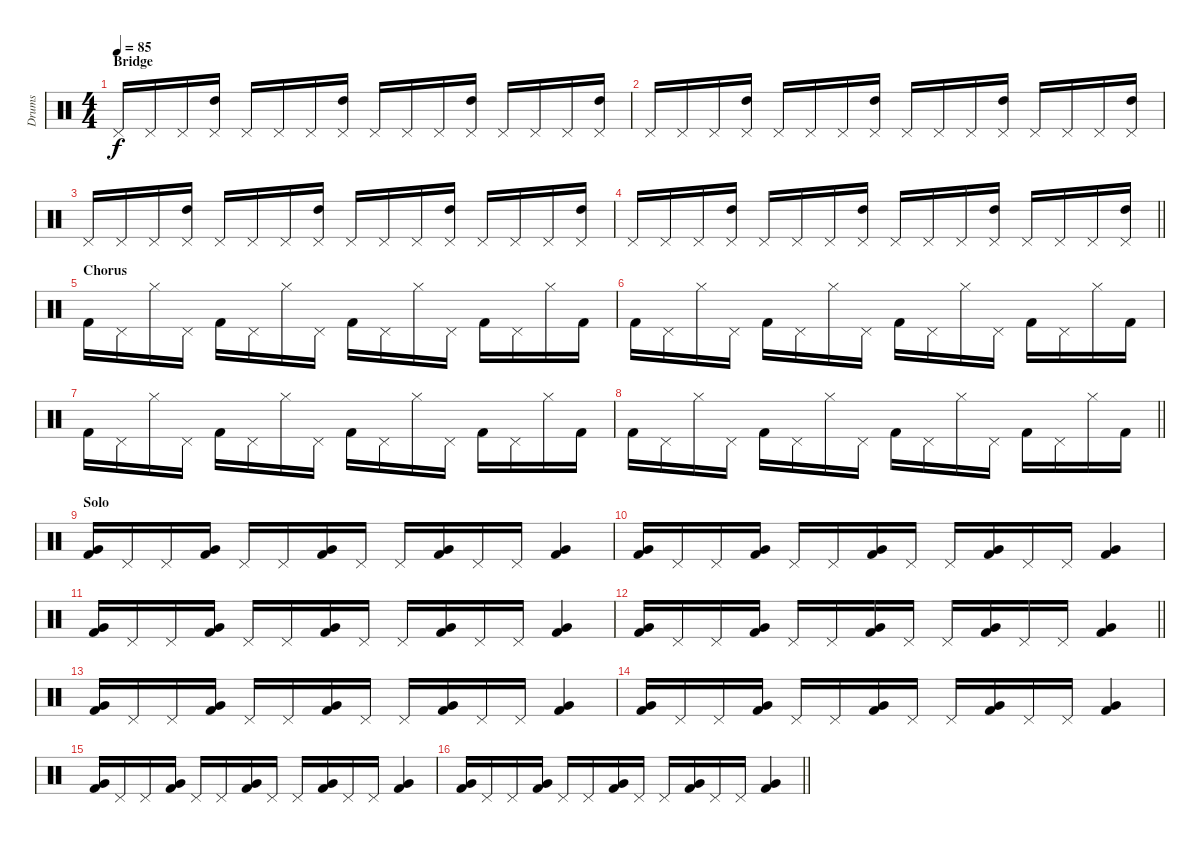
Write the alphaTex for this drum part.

\track ("Drums" "Drums") {instrument percussion}
\staff {score}
\articulation defaults
\ts (4 4)
\section ("" "Bridge")
\tempo 85
\clef neutral
\ks c "Pedal Hi-Hat (hit)".16{dy f} "Pedal Hi-Hat (hit)".16 "Pedal Hi-Hat (hit)".16
("High Tom (hit)" "Pedal Hi-Hat (hit)").16 "Pedal Hi-Hat (hit)".16 "Pedal Hi-Hat (hit)".16 "Pedal Hi-Hat (hit)".16 ("High Tom (hit)" "Pedal Hi-Hat (hit)").16 "Pedal Hi-Hat (hit)".16 "Pedal Hi-Hat (hit)".16 "Pedal Hi-Hat (hit)".16 ("High Tom (hit)" "Pedal Hi-Hat (hit)").16 "Pedal Hi-Hat (hit)".16 "Pedal Hi-Hat (hit)".16 "Pedal Hi-Hat (hit)".16 ("High Tom (hit)" "Pedal Hi-Hat (hit)").16 |
"Pedal Hi-Hat (hit)".16 "Pedal Hi-Hat (hit)".16 "Pedal Hi-Hat (hit)".16 ("High Tom (hit)" "Pedal Hi-Hat (hit)").16 "Pedal Hi-Hat (hit)".16 "Pedal Hi-Hat (hit)".16 "Pedal Hi-Hat (hit)".16 ("High Tom (hit)" "Pedal Hi-Hat (hit)").16 "Pedal Hi-Hat (hit)".16 "Pedal Hi-Hat (hit)".16 "Pedal Hi-Hat (hit)".16 ("High Tom (hit)" "Pedal Hi-Hat (hit)").16 "Pedal Hi-Hat (hit)".16 "Pedal Hi-Hat (hit)".16 "Pedal Hi-Hat (hit)".16 ("High Tom (hit)" "Pedal Hi-Hat (hit)").16 |
"Pedal Hi-Hat (hit)".16 "Pedal Hi-Hat (hit)".16 "Pedal Hi-Hat (hit)".16 ("High Tom (hit)" "Pedal Hi-Hat (hit)").16 "Pedal Hi-Hat (hit)".16 "Pedal Hi-Hat (hit)".16 "Pedal Hi-Hat (hit)".16 ("High Tom (hit)" "Pedal Hi-Hat (hit)").16 "Pedal Hi-Hat (hit)".16 "Pedal Hi-Hat (hit)".16 "Pedal Hi-Hat (hit)".16 ("High Tom (hit)" "Pedal Hi-Hat (hit)").16 "Pedal Hi-Hat (hit)".16 "Pedal Hi-Hat (hit)".16 "Pedal Hi-Hat (hit)".16 ("High Tom (hit)" "Pedal Hi-Hat (hit)").16 |
\barLineRight lightlight "Pedal Hi-Hat (hit)".16 "Pedal Hi-Hat (hit)".16 "Pedal Hi-Hat (hit)".16
("High Tom (hit)" "Pedal Hi-Hat (hit)").16 "Pedal Hi-Hat (hit)".16 "Pedal Hi-Hat (hit)".16 "Pedal Hi-Hat (hit)".16 ("High Tom (hit)" "Pedal Hi-Hat (hit)").16 "Pedal Hi-Hat (hit)".16 "Pedal Hi-Hat (hit)".16 "Pedal Hi-Hat (hit)".16 ("High Tom (hit)" "Pedal Hi-Hat (hit)").16 "Pedal Hi-Hat (hit)".16 "Pedal Hi-Hat (hit)".16 "Pedal Hi-Hat (hit)".16 ("High Tom (hit)" "Pedal Hi-Hat (hit)").16 |
\section ("" "Chorus")
"Kick (hit) 2".16 "Pedal Hi-Hat (hit)".16 "Hi-Hat (closed)".16 "Pedal Hi-Hat (hit)".16 "Kick (hit) 2".16 "Pedal Hi-Hat (hit)".16 "Hi-Hat (closed)".16 "Pedal Hi-Hat (hit)".16 "Kick (hit) 2".16 "Pedal Hi-Hat (hit)".16 "Hi-Hat (closed)".16 "Pedal Hi-Hat (hit)".16 "Kick (hit) 2".16 "Pedal Hi-Hat (hit)".16 "Hi-Hat (closed)".16 "Kick (hit) 2".16 |
"Kick (hit) 2".16 "Pedal Hi-Hat (hit)".16 "Hi-Hat (closed)".16 "Pedal Hi-Hat (hit)".16 "Kick (hit) 2".16 "Pedal Hi-Hat (hit)".16 "Hi-Hat (closed)".16 "Pedal Hi-Hat (hit)".16 "Kick (hit) 2".16 "Pedal Hi-Hat (hit)".16 "Hi-Hat (closed)".16 "Pedal Hi-Hat (hit)".16 "Kick (hit) 2".16 "Pedal Hi-Hat (hit)".16 "Hi-Hat (closed)".16 "Kick (hit) 2".16 |
"Kick (hit) 2".16 "Pedal Hi-Hat (hit)".16 "Hi-Hat (closed)".16 "Pedal Hi-Hat (hit)".16 "Kick (hit) 2".16 "Pedal Hi-Hat (hit)".16 "Hi-Hat (closed)".16 "Pedal Hi-Hat (hit)".16 "Kick (hit) 2".16 "Pedal Hi-Hat (hit)".16 "Hi-Hat (closed)".16 "Pedal Hi-Hat (hit)".16 "Kick (hit) 2".16 "Pedal Hi-Hat (hit)".16 "Hi-Hat (closed)".16 "Kick (hit) 2".16 |
\barLineRight lightlight "Kick (hit) 2".16 "Pedal Hi-Hat (hit)".16 "Hi-Hat (closed)".16 "Pedal Hi-Hat (hit)".16 "Kick (hit) 2".16 "Pedal Hi-Hat (hit)".16 "Hi-Hat (closed)".16 "Pedal Hi-Hat (hit)".16 "Kick (hit) 2".16 "Pedal Hi-Hat (hit)".16 "Hi-Hat (closed)".16 "Pedal Hi-Hat (hit)".16 "Kick (hit) 2".16 "Pedal Hi-Hat (hit)".16 "Hi-Hat (closed)".16 "Kick (hit) 2".16
|
\section ("" "Solo")
("Very Low Tom (hit)" "Kick (hit) 2").16 "Pedal Hi-Hat (hit)".16 "Pedal Hi-Hat (hit)".16 ("Very Low Tom (hit)" "Kick (hit) 2").16 "Pedal Hi-Hat (hit)".16 "Pedal Hi-Hat (hit)".16 ("Very Low Tom (hit)" "Kick (hit) 2").16 "Pedal Hi-Hat (hit)".16 "Pedal Hi-Hat (hit)".16 ("Very Low Tom (hit)" "Kick (hit) 2").16 "Pedal Hi-Hat (hit)".16 "Pedal Hi-Hat (hit)".16 ("Very Low Tom (hit)" "Kick (hit) 2").4 |
("Very Low Tom (hit)" "Kick (hit) 2").16 "Pedal Hi-Hat (hit)".16 "Pedal Hi-Hat (hit)".16 ("Very Low Tom (hit)" "Kick (hit) 2").16 "Pedal Hi-Hat (hit)".16 "Pedal Hi-Hat (hit)".16 ("Very Low Tom (hit)" "Kick (hit) 2").16 "Pedal Hi-Hat (hit)".16 "Pedal Hi-Hat (hit)".16 ("Very Low Tom (hit)" "Kick (hit) 2").16 "Pedal Hi-Hat (hit)".16 "Pedal Hi-Hat (hit)".16 ("Very Low Tom (hit)" "Kick (hit) 2").4 |
("Very Low Tom (hit)" "Kick (hit) 2").16 "Pedal Hi-Hat (hit)".16 "Pedal Hi-Hat (hit)".16 ("Very Low Tom (hit)" "Kick (hit) 2").16 "Pedal Hi-Hat (hit)".16 "Pedal Hi-Hat (hit)".16 ("Very Low Tom (hit)" "Kick (hit) 2").16 "Pedal Hi-Hat (hit)".16 "Pedal Hi-Hat (hit)".16 ("Very Low Tom (hit)" "Kick (hit) 2").16 "Pedal Hi-Hat (hit)".16 "Pedal Hi-Hat (hit)".16 ("Very Low Tom (hit)" "Kick (hit) 2").4 |
\barLineRight lightlight
("Very Low Tom (hit)" "Kick (hit) 2").16 "Pedal Hi-Hat (hit)".16 "Pedal Hi-Hat (hit)".16 ("Very Low Tom (hit)" "Kick (hit) 2").16 "Pedal Hi-Hat (hit)".16 "Pedal Hi-Hat (hit)".16 ("Very Low Tom (hit)" "Kick (hit) 2").16 "Pedal Hi-Hat (hit)".16 "Pedal Hi-Hat (hit)".16 ("Very Low Tom (hit)" "Kick (hit) 2").16 "Pedal Hi-Hat (hit)".16 "Pedal Hi-Hat (hit)".16 ("Very Low Tom (hit)" "Kick (hit) 2").4 |
("Very Low Tom (hit)" "Kick (hit) 2").16 "Pedal Hi-Hat (hit)".16 "Pedal Hi-Hat (hit)".16 ("Very Low Tom (hit)" "Kick (hit) 2").16 "Pedal Hi-Hat (hit)".16 "Pedal Hi-Hat (hit)".16 ("Very Low Tom (hit)" "Kick (hit) 2").16 "Pedal Hi-Hat (hit)".16 "Pedal Hi-Hat (hit)".16 ("Very Low Tom (hit)" "Kick (hit) 2").16 "Pedal Hi-Hat (hit)".16 "Pedal Hi-Hat (hit)".16 ("Very Low Tom (hit)" "Kick (hit) 2").4 |
("Very Low Tom (hit)" "Kick (hit) 2").16 "Pedal Hi-Hat (hit)".16 "Pedal Hi-Hat (hit)".16 ("Very Low Tom (hit)" "Kick (hit) 2").16 "Pedal Hi-Hat (hit)".16 "Pedal Hi-Hat (hit)".16 ("Very Low Tom (hit)" "Kick (hit) 2").16 "Pedal Hi-Hat (hit)".16 "Pedal Hi-Hat (hit)".16 ("Very Low Tom (hit)" "Kick (hit) 2").16 "Pedal Hi-Hat (hit)".16 "Pedal Hi-Hat (hit)".16 ("Very Low Tom (hit)" "Kick (hit) 2").4 |
("Very Low Tom (hit)" "Kick (hit) 2").16 "Pedal Hi-Hat (hit)".16 "Pedal Hi-Hat (hit)".16 ("Very Low Tom (hit)" "Kick (hit) 2").16 "Pedal Hi-Hat (hit)".16 "Pedal Hi-Hat (hit)".16 ("Very Low Tom (hit)" "Kick (hit) 2").16 "Pedal Hi-Hat (hit)".16 "Pedal Hi-Hat (hit)".16 ("Very Low Tom (hit)" "Kick (hit) 2").16 "Pedal Hi-Hat (hit)".16 "Pedal Hi-Hat (hit)".16 ("Very Low Tom (hit)" "Kick (hit) 2").4 |
\barLineRight lightlight
("Very Low Tom (hit)" "Kick (hit) 2").16 "Pedal Hi-Hat (hit)".16 "Pedal Hi-Hat (hit)".16 ("Very Low Tom (hit)" "Kick (hit) 2").16 "Pedal Hi-Hat (hit)".16 "Pedal Hi-Hat (hit)".16 ("Very Low Tom (hit)" "Kick (hit) 2").16 "Pedal Hi-Hat (hit)".16 "Pedal Hi-Hat (hit)".16 ("Very Low Tom (hit)" "Kick (hit) 2").16 "Pedal Hi-Hat (hit)".16 "Pedal Hi-Hat (hit)".16 ("Very Low Tom (hit)" "Kick (hit) 2").4
